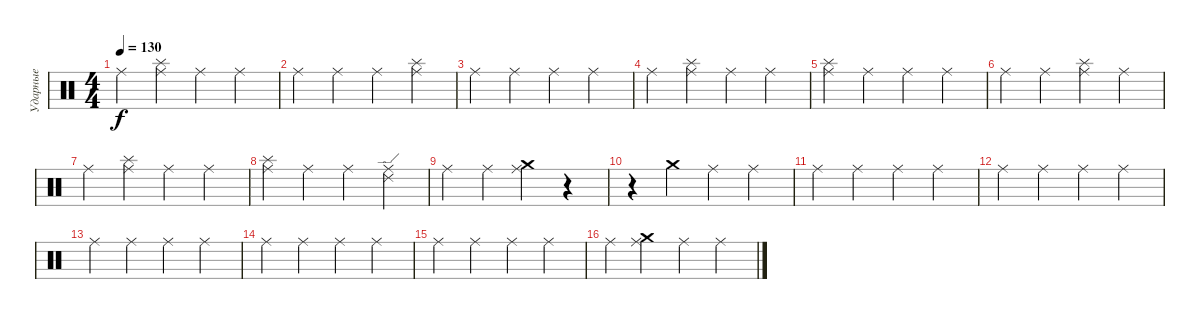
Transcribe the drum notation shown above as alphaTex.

\track ("Ударные" "Ударные") {instrument percussion}
\staff {score}
\articulation defaults
\ts (4 4)
\tempo 130
\clef neutral
\ks c "Ride (middle)".4{dy f}
("Splash (hit)" "Ride (middle)").4 "Ride (middle)".4 "Ride (middle)".4 |
"Ride (middle)".4 "Ride (middle)".4 "Ride (middle)".4 ("Splash (hit)" "Ride (middle)").4 |
"Ride (middle)".4 "Ride (middle)".4 "Ride (middle)".4 "Ride (middle)".4 |
"Ride (middle)".4 ("Splash (hit)" "Ride (middle)").4 "Ride (middle)".4 "Ride (middle)".4 |
("Splash (hit)" "Ride (middle)").4 "Ride (middle)".4 "Ride (middle)".4 "Ride (middle)".4 |
"Ride (middle)".4 "Ride (middle)".4 ("Splash (hit)" "Ride (middle)").4 "Ride (middle)".4 |
"Ride (middle)".4 ("Splash (hit)" "Ride (middle)").4 "Ride (middle)".4 "Ride (middle)".4 |
("Splash (hit)" "Ride (middle)").4 "Ride (middle)".4 "Ride (middle)".4 ("Ride (edge) 2" "Ride (middle)").4 |
"Ride (middle)".4 "Ride (middle)".4 ("Crash medium (hit)" "Ride (middle)").4 r.4 |
r.4 "Crash medium (hit)".4 "Ride (middle)".4 "Ride (middle)".4 |
"Ride (middle)".4 "Ride (middle)".4 "Ride (middle)".4 "Ride (middle)".4 |
"Ride (middle)".4 "Ride (middle)".4 "Ride (middle)".4 "Ride (middle)".4 |
"Ride (middle)".4 "Ride (middle)".4 "Ride (middle)".4 "Ride (middle)".4 |
"Ride (middle)".4 "Ride (middle)".4 "Ride (middle)".4 "Ride (middle)".4 |
"Ride (middle)".4 "Ride (middle)".4 "Ride (middle)".4 "Ride (middle)".4 |
"Ride (middle)".4 ("Crash medium (hit)" "Ride (middle)").4 "Ride (middle)".4 "Ride (middle)".4
